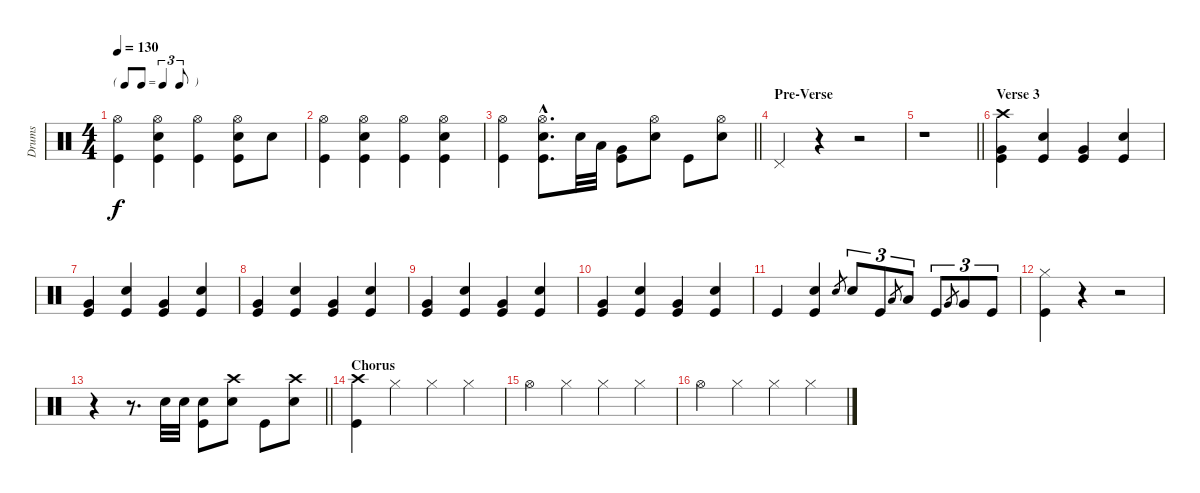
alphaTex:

\track ("Drums" "Drums") {instrument percussion}
\staff {score}
\articulation defaults
\ts (4 4)
\tf triplet8th
\tempo 130
\clef neutral
\ks c
("Hi-Hat (open)" "Kick (hit)").4{dy f} ("Hi-Hat (open)" "Snare (hit) 2" "Kick (hit)").4 ("Hi-Hat (open)" "Kick (hit)").4 ("Hi-Hat (open)" "Snare (hit) 2" "Kick (hit)").8 "Snare (hit) 2".8 |
("Hi-Hat (open)" "Kick (hit)").4 ("Hi-Hat (open)" "Snare (hit) 2" "Kick (hit)").4 ("Hi-Hat (open)" "Kick (hit)").4 ("Hi-Hat (open)" "Snare (hit) 2" "Kick (hit)").4 |
\barLineRight lightlight
("Hi-Hat (open)" "Kick (hit)").4 ("Hi-Hat (open)"{hac} "Snare (hit) 2"{hac} "Kick (hit)"{hac}).8{d} "Snare (hit) 2".32 "Low Tom (hit)".32 ("Very Low Tom (hit)" "Kick (hit)").8 ("Hi-Hat (open)" "Snare (hit) 2").8 "Kick (hit)".8 ("Snare (hit) 2" "Hi-Hat (open)").8 |
\section ("" "Pre-Verse")
"Pedal Hi-Hat (hit)".4 r.4 r.2 |
\barLineRight lightlight
r.1 |
\section ("" "Verse 3")
("Kick (hit)" "Crash high (hit)" "Very Low Tom (hit)").4 ("Snare (hit) 2" "Kick (hit)").4 ("Kick (hit)" "Very Low Tom (hit)").4 ("Snare (hit) 2" "Kick (hit)").4 |
("Kick (hit)" "Very Low Tom (hit)").4 ("Snare (hit) 2" "Kick (hit)").4 ("Kick (hit)" "Very Low Tom (hit)").4 ("Snare (hit) 2" "Kick (hit)").4 |
("Kick (hit)" "Very Low Tom (hit)").4 ("Snare (hit) 2" "Kick (hit)").4 ("Kick (hit)" "Very Low Tom (hit)").4 ("Snare (hit) 2" "Kick (hit)").4 |
("Kick (hit)" "Very Low Tom (hit)").4 ("Snare (hit) 2" "Kick (hit)").4 ("Kick (hit)" "Very Low Tom (hit)").4 ("Snare (hit) 2" "Kick (hit)").4 |
("Kick (hit)" "Very Low Tom (hit)").4 ("Snare (hit) 2" "Kick (hit)").4 ("Kick (hit)" "Very Low Tom (hit)").4 ("Snare (hit) 2" "Kick (hit)").4 |
"Kick (hit)".4 ("Snare (hit) 2" "Kick (hit)").4 "Snare (hit) 2".8{gr} "Snare (hit) 2".8{tu (3 2)} "Kick (hit)".8{tu (3 2)} "Low Tom (hit)".8{gr} "Low Tom (hit)".8{tu (3 2)} "Kick (hit)".8{tu (3 2)} "Very Low Tom (hit)".8{gr} "Very Low Tom (hit)".8{tu (3 2)} "Kick (hit)".8{tu (3 2)} |
("Hi-Hat (closed)" "Kick (hit)").4 r.4 r.2 |
\barLineRight lightlight
r.4 r.8{d} "Snare (hit) 2".32 "Snare (hit) 2".32 ("Kick (hit)" "Snare (hit) 2").8 ("Snare (hit) 2" "Crash high (hit)").8 "Kick (hit)".8 ("Crash high (hit)" "Snare (hit) 2").8 |
\section ("" "Chorus")
("Crash high (hit)" "Kick (hit)").4 "Hi-Hat (closed)".4 "Hi-Hat (closed)".4 "Hi-Hat (closed)".4 |
"Hi-Hat (open)".4 "Hi-Hat (closed)".4 "Hi-Hat (closed)".4 "Hi-Hat (closed)".4 |
"Hi-Hat (open)".4 "Hi-Hat (closed)".4 "Hi-Hat (closed)".4 "Hi-Hat (closed)".4
